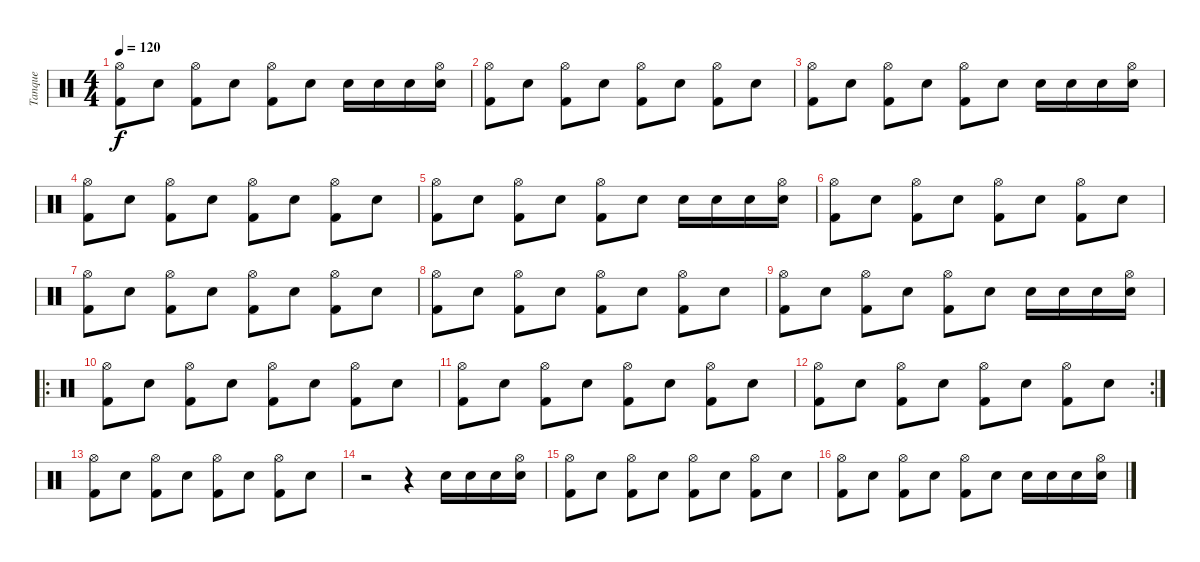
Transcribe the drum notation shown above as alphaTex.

\track ("Tanque" "Tanque") {instrument percussion}
\staff {score}
\articulation defaults
\ts (4 4)
\tempo 120
\clef neutral
\ks c
("Kick (hit) 2" "Hi-Hat (open)").8{dy f} "Electric Snare (hit)".8 ("Kick (hit) 2" "Hi-Hat (open)").8 "Electric Snare (hit)".8 ("Kick (hit) 2" "Hi-Hat (open)").8 "Electric Snare (hit)".8 "Electric Snare (hit)".16 "Electric Snare (hit)".16 "Electric Snare (hit)".16 ("Electric Snare (hit)" "Hi-Hat (open)").16 |
("Kick (hit) 2" "Hi-Hat (open)").8 "Electric Snare (hit)".8 ("Kick (hit) 2" "Hi-Hat (open)").8 "Electric Snare (hit)".8 ("Kick (hit) 2" "Hi-Hat (open)").8 "Electric Snare (hit)".8 ("Kick (hit) 2" "Hi-Hat (open)").8 "Electric Snare (hit)".8 |
("Kick (hit) 2" "Hi-Hat (open)").8 "Electric Snare (hit)".8 ("Kick (hit) 2" "Hi-Hat (open)").8 "Electric Snare (hit)".8 ("Kick (hit) 2" "Hi-Hat (open)").8 "Electric Snare (hit)".8 "Electric Snare (hit)".16 "Electric Snare (hit)".16 "Electric Snare (hit)".16 ("Electric Snare (hit)" "Hi-Hat (open)").16 |
("Kick (hit) 2" "Hi-Hat (open)").8 "Electric Snare (hit)".8 ("Kick (hit) 2" "Hi-Hat (open)").8 "Electric Snare (hit)".8 ("Kick (hit) 2" "Hi-Hat (open)").8 "Electric Snare (hit)".8 ("Kick (hit) 2" "Hi-Hat (open)").8 "Electric Snare (hit)".8 |
("Kick (hit) 2" "Hi-Hat (open)").8 "Electric Snare (hit)".8 ("Kick (hit) 2" "Hi-Hat (open)").8 "Electric Snare (hit)".8 ("Kick (hit) 2" "Hi-Hat (open)").8 "Electric Snare (hit)".8 "Electric Snare (hit)".16 "Electric Snare (hit)".16 "Electric Snare (hit)".16 ("Electric Snare (hit)" "Hi-Hat (open)").16 |
("Kick (hit) 2" "Hi-Hat (open)").8 "Electric Snare (hit)".8 ("Kick (hit) 2" "Hi-Hat (open)").8 "Electric Snare (hit)".8 ("Kick (hit) 2" "Hi-Hat (open)").8 "Electric Snare (hit)".8 ("Kick (hit) 2" "Hi-Hat (open)").8 "Electric Snare (hit)".8 |
("Kick (hit) 2" "Hi-Hat (open)").8 "Electric Snare (hit)".8 ("Kick (hit) 2" "Hi-Hat (open)").8 "Electric Snare (hit)".8 ("Kick (hit) 2" "Hi-Hat (open)").8 "Electric Snare (hit)".8 ("Kick (hit) 2" "Hi-Hat (open)").8 "Electric Snare (hit)".8 |
("Kick (hit) 2" "Hi-Hat (open)").8 "Electric Snare (hit)".8 ("Kick (hit) 2" "Hi-Hat (open)").8 "Electric Snare (hit)".8 ("Kick (hit) 2" "Hi-Hat (open)").8 "Electric Snare (hit)".8 ("Kick (hit) 2" "Hi-Hat (open)").8 "Electric Snare (hit)".8 |
("Kick (hit) 2" "Hi-Hat (open)").8 "Electric Snare (hit)".8 ("Kick (hit) 2" "Hi-Hat (open)").8 "Electric Snare (hit)".8 ("Kick (hit) 2" "Hi-Hat (open)").8 "Electric Snare (hit)".8 "Electric Snare (hit)".16 "Electric Snare (hit)".16 "Electric Snare (hit)".16 ("Electric Snare (hit)" "Hi-Hat (open)").16 |
\ro
("Kick (hit) 2" "Hi-Hat (open)").8 "Electric Snare (hit)".8 ("Kick (hit) 2" "Hi-Hat (open)").8 "Electric Snare (hit)".8 ("Kick (hit) 2" "Hi-Hat (open)").8 "Electric Snare (hit)".8 ("Kick (hit) 2" "Hi-Hat (open)").8 "Electric Snare (hit)".8 |
("Kick (hit) 2" "Hi-Hat (open)").8 "Electric Snare (hit)".8 ("Kick (hit) 2" "Hi-Hat (open)").8 "Electric Snare (hit)".8 ("Kick (hit) 2" "Hi-Hat (open)").8 "Electric Snare (hit)".8 ("Kick (hit) 2" "Hi-Hat (open)").8 "Electric Snare (hit)".8 |
\rc 2
("Kick (hit) 2" "Hi-Hat (open)").8 "Electric Snare (hit)".8 ("Kick (hit) 2" "Hi-Hat (open)").8 "Electric Snare (hit)".8 ("Kick (hit) 2" "Hi-Hat (open)").8 "Electric Snare (hit)".8 ("Kick (hit) 2" "Hi-Hat (open)").8 "Electric Snare (hit)".8 |
("Kick (hit) 2" "Hi-Hat (open)").8 "Electric Snare (hit)".8 ("Kick (hit) 2" "Hi-Hat (open)").8 "Electric Snare (hit)".8 ("Kick (hit) 2" "Hi-Hat (open)").8 "Electric Snare (hit)".8 ("Kick (hit) 2" "Hi-Hat (open)").8 "Electric Snare (hit)".8 |
r.2 r.4 "Electric Snare (hit)".16 "Electric Snare (hit)".16 "Electric Snare (hit)".16 ("Electric Snare (hit)" "Hi-Hat (open)").16 |
("Kick (hit) 2" "Hi-Hat (open)").8 "Electric Snare (hit)".8 ("Kick (hit) 2" "Hi-Hat (open)").8 "Electric Snare (hit)".8 ("Kick (hit) 2" "Hi-Hat (open)").8 "Electric Snare (hit)".8 ("Kick (hit) 2" "Hi-Hat (open)").8 "Electric Snare (hit)".8 |
("Kick (hit) 2" "Hi-Hat (open)").8 "Electric Snare (hit)".8 ("Kick (hit) 2" "Hi-Hat (open)").8 "Electric Snare (hit)".8 ("Kick (hit) 2" "Hi-Hat (open)").8 "Electric Snare (hit)".8 "Electric Snare (hit)".16 "Electric Snare (hit)".16 "Electric Snare (hit)".16 ("Electric Snare (hit)" "Hi-Hat (open)").16
